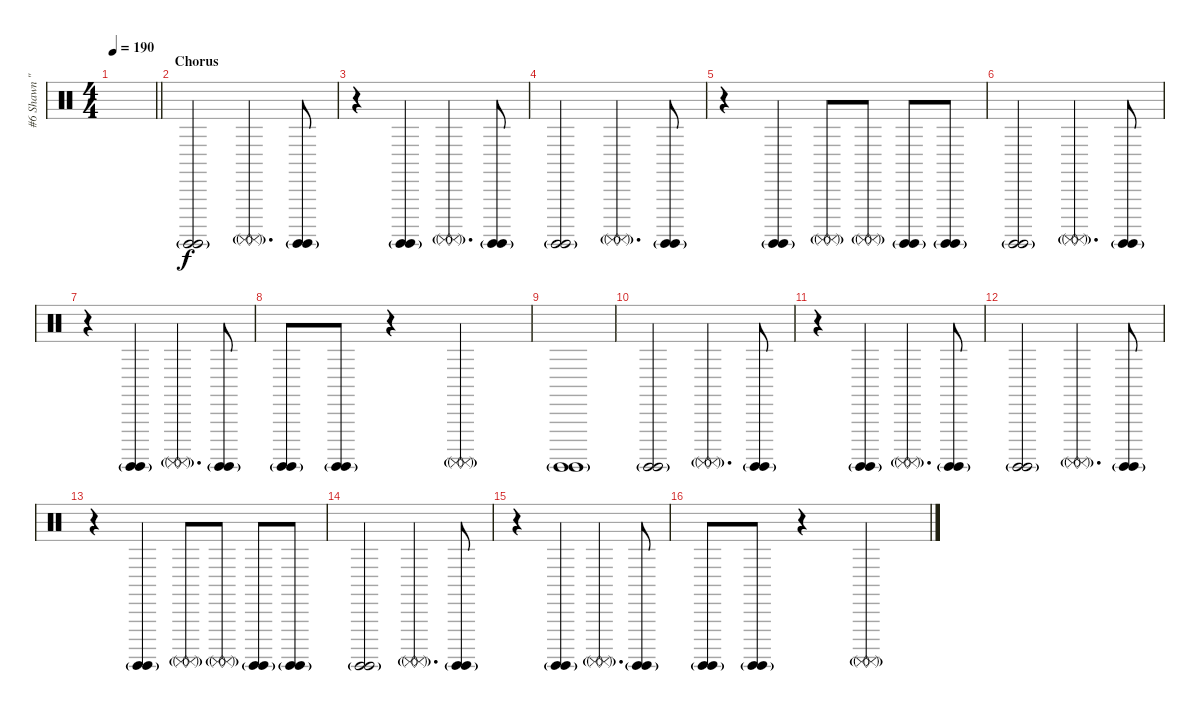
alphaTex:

\track ("#6 Shawn \"Clown\" Crahan" "#6 Shawn \"") {instrument percussion}
\staff {score}
\articulation defaults
\ts (4 4)
\tempo 190
\clef neutral
\barLineRight lightlight
\ks c
|
\section ("" "Chorus")
("Surdo (hit)"{g} "Surdo (hit)"{g}).2 ("Surdo (mute)"{g} "Surdo (mute)"{g}).4{d} ("Surdo (hit)"{g} "Surdo (hit)"{g}).8 |
r.4 ("Surdo (hit)"{g} "Surdo (hit)"{g}).4 ("Surdo (mute)"{g} "Surdo (mute)"{g}).4{d} ("Surdo (hit)"{g} "Surdo (hit)"{g}).8 |
("Surdo (hit)"{g} "Surdo (hit)"{g}).2 ("Surdo (mute)"{g} "Surdo (mute)"{g}).4{d} ("Surdo (hit)"{g} "Surdo (hit)"{g}).8 |
r.4 ("Surdo (hit)"{g} "Surdo (hit)"{g}).4 ("Surdo (mute)"{g} "Surdo (mute)"{g}).8 ("Surdo (mute)"{g} "Surdo (mute)"{g}).8 ("Surdo (hit)"{g} "Surdo (hit)"{g}).8 ("Surdo (hit)"{g} "Surdo (hit)"{g}).8 |
("Surdo (hit)"{g} "Surdo (hit)"{g}).2 ("Surdo (mute)"{g} "Surdo (mute)"{g}).4{d} ("Surdo (hit)"{g} "Surdo (hit)"{g}).8 |
r.4 ("Surdo (hit)"{g} "Surdo (hit)"{g}).4 ("Surdo (mute)"{g} "Surdo (mute)"{g}).4{d} ("Surdo (hit)"{g} "Surdo (hit)"{g}).8 |
("Surdo (hit)"{g} "Surdo (hit)"{g}).8 ("Surdo (hit)"{g} "Surdo (hit)"{g}).8 r.4 ("Surdo (mute)"{g} "Surdo (mute)"{g}).2 |
("Surdo (hit)"{g} "Surdo (hit)"{g}).1 |
("Surdo (hit)"{g} "Surdo (hit)"{g}).2 ("Surdo (mute)"{g} "Surdo (mute)"{g}).4{d} ("Surdo (hit)"{g} "Surdo (hit)"{g}).8 |
r.4 ("Surdo (hit)"{g} "Surdo (hit)"{g}).4 ("Surdo (mute)"{g} "Surdo (mute)"{g}).4{d} ("Surdo (hit)"{g} "Surdo (hit)"{g}).8 |
("Surdo (hit)"{g} "Surdo (hit)"{g}).2 ("Surdo (mute)"{g} "Surdo (mute)"{g}).4{d} ("Surdo (hit)"{g} "Surdo (hit)"{g}).8 |
r.4 ("Surdo (hit)"{g} "Surdo (hit)"{g}).4 ("Surdo (mute)"{g} "Surdo (mute)"{g}).8 ("Surdo (mute)"{g} "Surdo (mute)"{g}).8 ("Surdo (hit)"{g} "Surdo (hit)"{g}).8 ("Surdo (hit)"{g} "Surdo (hit)"{g}).8 |
("Surdo (hit)"{g} "Surdo (hit)"{g}).2 ("Surdo (mute)"{g} "Surdo (mute)"{g}).4{d} ("Surdo (hit)"{g} "Surdo (hit)"{g}).8 |
r.4 ("Surdo (hit)"{g} "Surdo (hit)"{g}).4 ("Surdo (mute)"{g} "Surdo (mute)"{g}).4{d} ("Surdo (hit)"{g} "Surdo (hit)"{g}).8 |
("Surdo (hit)"{g} "Surdo (hit)"{g}).8 ("Surdo (hit)"{g} "Surdo (hit)"{g}).8 r.4 ("Surdo (mute)"{g} "Surdo (mute)"{g}).2
